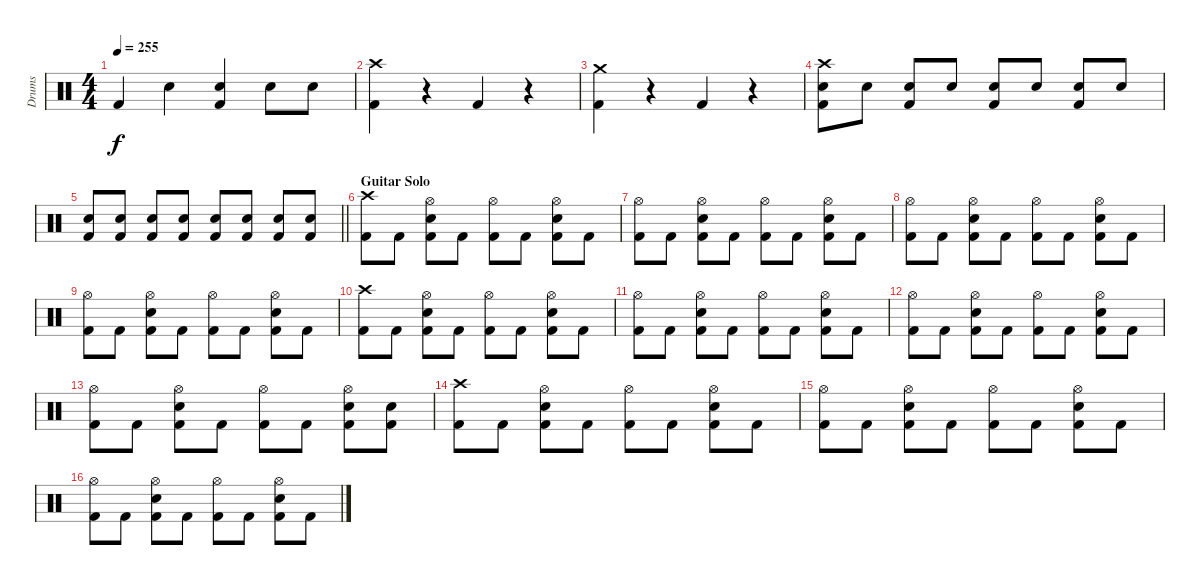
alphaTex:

\track ("Drums" "Drums") {instrument percussion}
\staff {score}
\articulation defaults
\ts (4 4)
\tempo 255
\clef neutral
\ks c "Kick (hit) 2".4{dy f} "Snare (hit) 2".4
("Snare (hit) 2" "Kick (hit) 2").4 "Snare (hit) 2".8 "Snare (hit) 2".8 |
("Crash high (hit)" "Kick (hit) 2").4 r.4 "Kick (hit) 2".4 r.4 |
("Crash medium (hit)" "Kick (hit) 2").4 r.4 "Kick (hit) 2".4 r.4 |
("Crash high (hit)" "Snare (hit) 2" "Kick (hit) 2").8 "Snare (hit) 2".8 ("Snare (hit) 2" "Kick (hit) 2").8 "Snare (hit) 2".8 ("Snare (hit) 2" "Kick (hit) 2").8 "Snare (hit) 2".8 ("Snare (hit) 2" "Kick (hit) 2").8 "Snare (hit) 2".8 |
\barLineRight lightlight
("Snare (hit) 2" "Kick (hit) 2").8 ("Snare (hit) 2" "Kick (hit) 2").8 ("Snare (hit) 2" "Kick (hit) 2").8 ("Snare (hit) 2" "Kick (hit) 2").8 ("Snare (hit) 2" "Kick (hit) 2").8 ("Snare (hit) 2" "Kick (hit) 2").8 ("Snare (hit) 2" "Kick (hit) 2").8 ("Snare (hit) 2" "Kick (hit) 2").8 |
\section ("" "Guitar Solo")
("Crash high (hit)" "Kick (hit) 2").8 "Kick (hit) 2".8 ("Hi-Hat (open)" "Snare (hit) 2" "Kick (hit) 2").8 "Kick (hit) 2".8 ("Hi-Hat (open)" "Kick (hit) 2").8 "Kick (hit) 2".8 ("Hi-Hat (open)" "Snare (hit) 2" "Kick (hit) 2").8 "Kick (hit) 2".8 |
("Hi-Hat (open)" "Kick (hit) 2").8 "Kick (hit) 2".8 ("Hi-Hat (open)" "Snare (hit) 2" "Kick (hit) 2").8 "Kick (hit) 2".8 ("Hi-Hat (open)" "Kick (hit) 2").8 "Kick (hit) 2".8 ("Hi-Hat (open)" "Snare (hit) 2" "Kick (hit) 2").8 "Kick (hit) 2".8 |
("Hi-Hat (open)" "Kick (hit) 2").8 "Kick (hit) 2".8 ("Hi-Hat (open)" "Snare (hit) 2" "Kick (hit) 2").8 "Kick (hit) 2".8 ("Hi-Hat (open)" "Kick (hit) 2").8 "Kick (hit) 2".8 ("Hi-Hat (open)" "Snare (hit) 2" "Kick (hit) 2").8 "Kick (hit) 2".8 |
("Hi-Hat (open)" "Kick (hit) 2").8 "Kick (hit) 2".8 ("Hi-Hat (open)" "Snare (hit) 2" "Kick (hit) 2").8 "Kick (hit) 2".8 ("Hi-Hat (open)" "Kick (hit) 2").8 "Kick (hit) 2".8 ("Hi-Hat (open)" "Snare (hit) 2" "Kick (hit) 2").8 "Kick (hit) 2".8 |
("Crash high (hit)" "Kick (hit) 2").8 "Kick (hit) 2".8 ("Hi-Hat (open)" "Snare (hit) 2" "Kick (hit) 2").8 "Kick (hit) 2".8 ("Hi-Hat (open)" "Kick (hit) 2").8 "Kick (hit) 2".8 ("Hi-Hat (open)" "Snare (hit) 2" "Kick (hit) 2").8 "Kick (hit) 2".8 |
("Hi-Hat (open)" "Kick (hit) 2").8 "Kick (hit) 2".8 ("Hi-Hat (open)" "Snare (hit) 2" "Kick (hit) 2").8 "Kick (hit) 2".8 ("Hi-Hat (open)" "Kick (hit) 2").8 "Kick (hit) 2".8 ("Hi-Hat (open)" "Snare (hit) 2" "Kick (hit) 2").8 "Kick (hit) 2".8 |
("Hi-Hat (open)" "Kick (hit) 2").8 "Kick (hit) 2".8 ("Hi-Hat (open)" "Snare (hit) 2" "Kick (hit) 2").8 "Kick (hit) 2".8 ("Hi-Hat (open)" "Kick (hit) 2").8 "Kick (hit) 2".8 ("Hi-Hat (open)" "Snare (hit) 2" "Kick (hit) 2").8 "Kick (hit) 2".8 |
("Hi-Hat (open)" "Kick (hit) 2").8 "Kick (hit) 2".8 ("Hi-Hat (open)" "Snare (hit) 2" "Kick (hit) 2").8 "Kick (hit) 2".8 ("Hi-Hat (open)" "Kick (hit) 2").8 "Kick (hit) 2".8 ("Hi-Hat (open)" "Snare (hit) 2" "Kick (hit) 2").8 ("Snare (hit) 2" "Kick (hit) 2").8 |
("Crash high (hit)" "Kick (hit) 2").8 "Kick (hit) 2".8 ("Hi-Hat (open)" "Snare (hit) 2" "Kick (hit) 2").8 "Kick (hit) 2".8 ("Hi-Hat (open)" "Kick (hit) 2").8 "Kick (hit) 2".8 ("Hi-Hat (open)" "Snare (hit) 2" "Kick (hit) 2").8 "Kick (hit) 2".8 |
("Hi-Hat (open)" "Kick (hit) 2").8 "Kick (hit) 2".8 ("Hi-Hat (open)" "Snare (hit) 2" "Kick (hit) 2").8 "Kick (hit) 2".8 ("Hi-Hat (open)" "Kick (hit) 2").8 "Kick (hit) 2".8 ("Hi-Hat (open)" "Snare (hit) 2" "Kick (hit) 2").8 "Kick (hit) 2".8 |
("Hi-Hat (open)" "Kick (hit) 2").8 "Kick (hit) 2".8 ("Hi-Hat (open)" "Snare (hit) 2" "Kick (hit) 2").8 "Kick (hit) 2".8 ("Hi-Hat (open)" "Kick (hit) 2").8 "Kick (hit) 2".8 ("Hi-Hat (open)" "Snare (hit) 2" "Kick (hit) 2").8 "Kick (hit) 2".8
